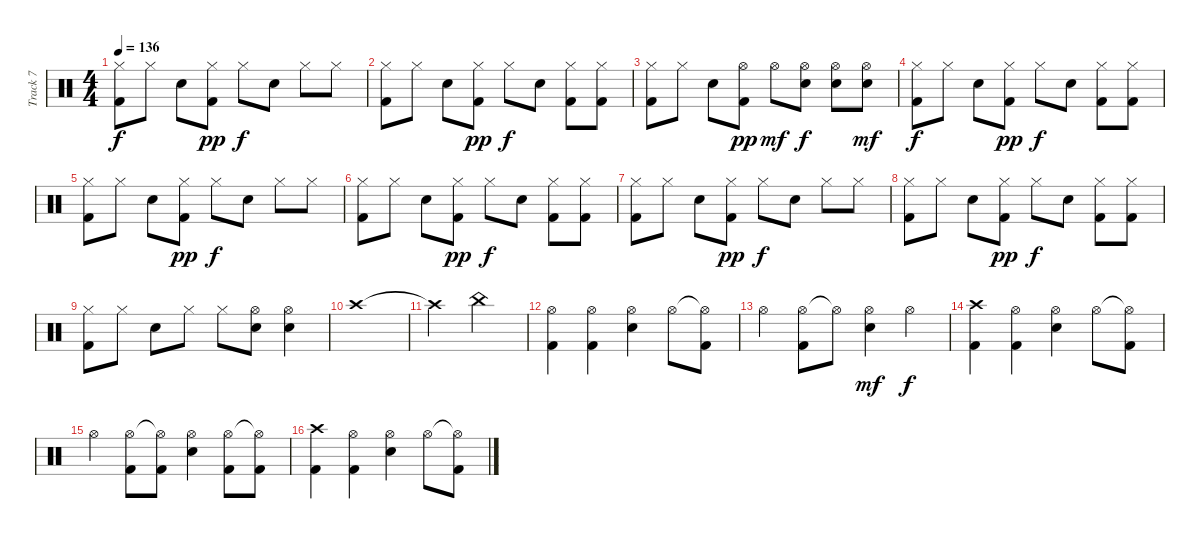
\track ("Track 7" "Track 7") {instrument percussion}
\staff {score}
\articulation defaults
\ts (4 4)
\tempo 136
\clef neutral
\ks c
("Hi-Hat (closed)" "Kick (hit) 2").8{dy f} "Hi-Hat (closed)".8 "Electric Snare (hit)".8 ("Hi-Hat (closed)" "Kick (hit) 2").8{dy pp} "Hi-Hat (closed)".8{dy f} "Electric Snare (hit)".8 "Hi-Hat (closed)".8 "Hi-Hat (closed)".8 |
("Hi-Hat (closed)" "Kick (hit) 2").8 "Hi-Hat (closed)".8 "Electric Snare (hit)".8 ("Hi-Hat (closed)" "Kick (hit) 2").8{dy pp} "Hi-Hat (closed)".8{dy f} "Electric Snare (hit)".8 ("Hi-Hat (closed)" "Kick (hit) 2").8 ("Hi-Hat (closed)" "Kick (hit) 2").8 |
("Hi-Hat (closed)" "Kick (hit) 2").8 "Hi-Hat (closed)".8 "Electric Snare (hit)".8 ("Hi-Hat (open)" "Kick (hit) 2").8{dy pp} "Hi-Hat (open)".8{dy mf} ("Hi-Hat (open)" "Electric Snare (hit)").8{dy f} ("Hi-Hat (open)" "Electric Snare (hit)").8 ("Hi-Hat (open)" "Electric Snare (hit)").8{dy mf} |
("Hi-Hat (closed)" "Kick (hit) 2").8{dy f} "Hi-Hat (closed)".8 "Electric Snare (hit)".8 ("Hi-Hat (closed)" "Kick (hit) 2").8{dy pp} "Hi-Hat (closed)".8{dy f} "Electric Snare (hit)".8 ("Hi-Hat (closed)" "Kick (hit) 2").8 ("Hi-Hat (closed)" "Kick (hit) 2").8 |
("Hi-Hat (closed)" "Kick (hit) 2").8 "Hi-Hat (closed)".8 "Electric Snare (hit)".8 ("Hi-Hat (closed)" "Kick (hit) 2").8{dy pp} "Hi-Hat (closed)".8{dy f} "Electric Snare (hit)".8 "Hi-Hat (closed)".8 "Hi-Hat (closed)".8 |
("Hi-Hat (closed)" "Kick (hit) 2").8 "Hi-Hat (closed)".8 "Electric Snare (hit)".8 ("Hi-Hat (closed)" "Kick (hit) 2").8{dy pp} "Hi-Hat (closed)".8{dy f} "Electric Snare (hit)".8 ("Hi-Hat (closed)" "Kick (hit) 2").8 ("Hi-Hat (closed)" "Kick (hit) 2").8 |
("Hi-Hat (closed)" "Kick (hit) 2").8 "Hi-Hat (closed)".8 "Electric Snare (hit)".8 ("Hi-Hat (closed)" "Kick (hit) 2").8{dy pp} "Hi-Hat (closed)".8{dy f} "Electric Snare (hit)".8 "Hi-Hat (closed)".8 "Hi-Hat (closed)".8 |
("Hi-Hat (closed)" "Kick (hit) 2").8 "Hi-Hat (closed)".8 "Electric Snare (hit)".8 ("Hi-Hat (closed)" "Kick (hit) 2").8{dy pp} "Hi-Hat (closed)".8{dy f} "Electric Snare (hit)".8 ("Hi-Hat (closed)" "Kick (hit) 2").8 ("Hi-Hat (closed)" "Kick (hit) 2").8 |
("Hi-Hat (closed)" "Kick (hit) 2").8 "Hi-Hat (closed)".8 "Electric Snare (hit)".8 "Hi-Hat (closed)".8 "Hi-Hat (closed)".8 ("Hi-Hat (open)" "Electric Snare (hit)").8 ("Hi-Hat (open)" "Electric Snare (hit)").4 |
"Crash high (hit)".1 |
"Crash high (hit)"{t}.2 "China (hit)".2 |
("Hi-Hat (open)" "Kick (hit) 2").4 ("Hi-Hat (open)" "Kick (hit) 2").4 ("Hi-Hat (open)" "Electric Snare (hit)").4 "Hi-Hat (open)".8 ("Hi-Hat (open)"{t} "Kick (hit) 2").8 |
"Hi-Hat (open)".4 ("Hi-Hat (open)" "Kick (hit) 2").8 "Hi-Hat (open)"{t}.8 ("Hi-Hat (open)" "Electric Snare (hit)").4{dy mf} "Hi-Hat (open)".4{dy f} |
("Crash high (hit)" "Kick (hit) 2").4 ("Hi-Hat (open)" "Kick (hit) 2").4 ("Hi-Hat (open)" "Electric Snare (hit)").4 "Hi-Hat (open)".8 ("Hi-Hat (open)"{t} "Kick (hit) 2").8 |
"Hi-Hat (open)".4 ("Hi-Hat (open)" "Kick (hit) 2").8 ("Hi-Hat (open)"{t} "Kick (hit) 2").8 ("Hi-Hat (open)" "Electric Snare (hit)").4 ("Hi-Hat (open)" "Kick (hit) 2").8 ("Hi-Hat (open)"{t} "Kick (hit) 2").8 |
("Crash high (hit)" "Kick (hit) 2").4 ("Hi-Hat (open)" "Kick (hit) 2").4 ("Hi-Hat (open)" "Electric Snare (hit)").4 "Hi-Hat (open)".8 ("Hi-Hat (open)"{t} "Kick (hit) 2").8
